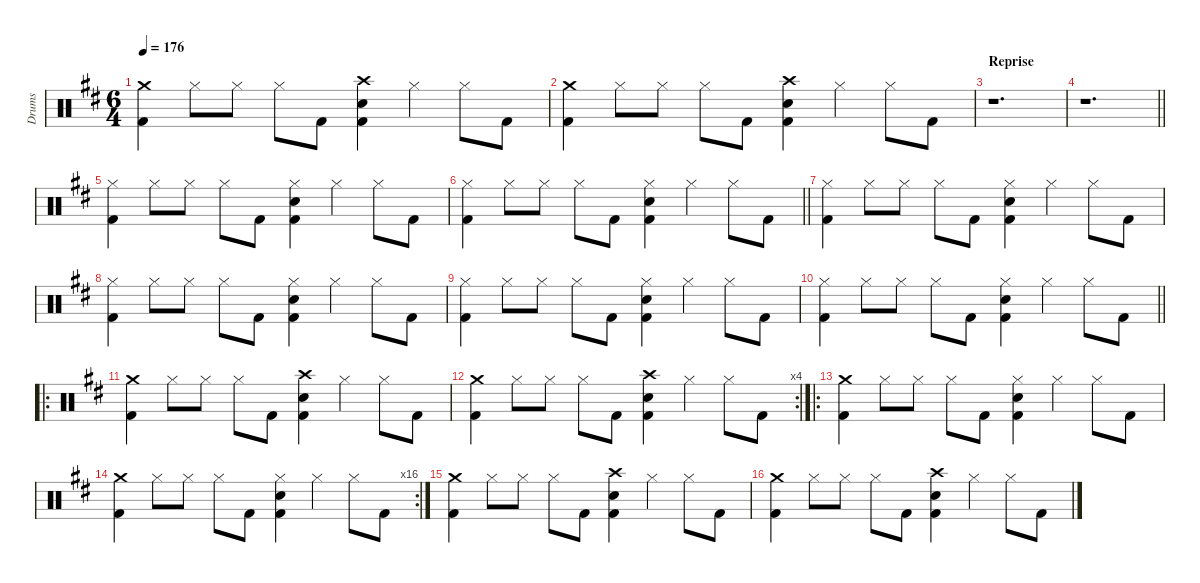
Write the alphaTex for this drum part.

\hideDynamics
\bracketExtendMode groupsimilarinstruments
\otherSystemsTrackNameOrientation horizontal
\track ("Drumkit" "Drums") {defaultSystemsLayout 4 instrument percussion}
\staff {score}
\articulation defaults
\ts (6 4)
\tempo 176
\clef neutral
\ks bminor
("Crash medium (hit)"{acc forcenatural} "Kick (hit) 2"{acc forcenatural}).4{dy ff beam Down} "Hi-Hat (closed)"{acc forcenatural}.8{dy f beam Down} "Hi-Hat (closed)"{acc forcenatural}.8{beam Down} "Hi-Hat (closed)"{acc forcenatural}.8{beam Down} "Kick (hit) 2"{acc forcenatural}.8{beam Down} ("Crash high (hit)"{acc forcenatural} "Snare (hit) 2"{acc forcenatural} "Kick (hit) 2"{acc forcenatural}).4{beam Down} "Hi-Hat (closed)"{acc forcenatural}.4{beam Down} "Hi-Hat (closed)"{acc forcenatural}.8{beam Down} "Kick (hit) 2"{acc forcenatural}.8{beam Down} |
("Crash medium (hit)"{acc forcenatural} "Kick (hit) 2"{acc forcenatural}).4{dy ff beam Down} "Hi-Hat (closed)"{acc forcenatural}.8{dy f beam Down} "Hi-Hat (closed)"{acc forcenatural}.8{beam Down} "Hi-Hat (closed)"{acc forcenatural}.8{beam Down} "Kick (hit) 2"{acc forcenatural}.8{beam Down} ("Crash high (hit)"{acc forcenatural} "Snare (hit) 2"{acc forcenatural} "Kick (hit) 2"{acc forcenatural}).4{beam Down} "Hi-Hat (closed)"{acc forcenatural}.4{beam Down} "Hi-Hat (closed)"{acc forcenatural}.8{beam Down} "Kick (hit) 2"{acc forcenatural}.8{beam Down} |
\section ("" "Reprise")
r.1{d beam Down} |
\barLineRight lightlight
r.1{d beam Down} |
("Hi-Hat (closed)"{acc forcenatural} "Kick (hit) 2"{acc forcenatural}).4{beam Down} "Hi-Hat (closed)"{acc forcenatural}.8{beam Down} "Hi-Hat (closed)"{acc forcenatural}.8{beam Down} "Hi-Hat (closed)"{acc forcenatural}.8{beam Down} "Kick (hit) 2"{acc forcenatural}.8{beam Down} ("Hi-Hat (closed)"{acc forcenatural} "Snare (hit) 2"{acc forcenatural} "Kick (hit) 2"{acc forcenatural}).4{beam Down} "Hi-Hat (closed)"{acc forcenatural}.4{beam Down} "Hi-Hat (closed)"{acc forcenatural}.8{beam Down} "Kick (hit) 2"{acc forcenatural}.8{beam Down} |
\barLineRight lightlight
("Hi-Hat (closed)"{acc forcenatural} "Kick (hit) 2"{acc forcenatural}).4{beam Down} "Hi-Hat (closed)"{acc forcenatural}.8{beam Down} "Hi-Hat (closed)"{acc forcenatural}.8{beam Down} "Hi-Hat (closed)"{acc forcenatural}.8{beam Down} "Kick (hit) 2"{acc forcenatural}.8{beam Down} ("Hi-Hat (closed)"{acc forcenatural} "Snare (hit) 2"{acc forcenatural} "Kick (hit) 2"{acc forcenatural}).4{beam Down} "Hi-Hat (closed)"{acc forcenatural}.4{beam Down} "Hi-Hat (closed)"{acc forcenatural}.8{beam Down} "Kick (hit) 2"{acc forcenatural}.8{beam Down} |
("Hi-Hat (closed)"{acc forcenatural} "Kick (hit) 2"{acc forcenatural}).4{beam Down} "Hi-Hat (closed)"{acc forcenatural}.8{beam Down} "Hi-Hat (closed)"{acc forcenatural}.8{beam Down} "Hi-Hat (closed)"{acc forcenatural}.8{beam Down} "Kick (hit) 2"{acc forcenatural}.8{beam Down} ("Hi-Hat (closed)"{acc forcenatural} "Snare (hit) 2"{acc forcenatural} "Kick (hit) 2"{acc forcenatural}).4{beam Down} "Hi-Hat (closed)"{acc forcenatural}.4{beam Down} "Hi-Hat (closed)"{acc forcenatural}.8{beam Down} "Kick (hit) 2"{acc forcenatural}.8{beam Down} |
("Hi-Hat (closed)"{acc forcenatural} "Kick (hit) 2"{acc forcenatural}).4{beam Down} "Hi-Hat (closed)"{acc forcenatural}.8{beam Down} "Hi-Hat (closed)"{acc forcenatural}.8{beam Down} "Hi-Hat (closed)"{acc forcenatural}.8{beam Down} "Kick (hit) 2"{acc forcenatural}.8{beam Down} ("Hi-Hat (closed)"{acc forcenatural} "Snare (hit) 2"{acc forcenatural} "Kick (hit) 2"{acc forcenatural}).4{beam Down} "Hi-Hat (closed)"{acc forcenatural}.4{beam Down} "Hi-Hat (closed)"{acc forcenatural}.8{beam Down} "Kick (hit) 2"{acc forcenatural}.8{beam Down} |
("Hi-Hat (closed)"{acc forcenatural} "Kick (hit) 2"{acc forcenatural}).4{beam Down} "Hi-Hat (closed)"{acc forcenatural}.8{beam Down} "Hi-Hat (closed)"{acc forcenatural}.8{beam Down} "Hi-Hat (closed)"{acc forcenatural}.8{beam Down} "Kick (hit) 2"{acc forcenatural}.8{beam Down} ("Hi-Hat (closed)"{acc forcenatural} "Snare (hit) 2"{acc forcenatural} "Kick (hit) 2"{acc forcenatural}).4{beam Down} "Hi-Hat (closed)"{acc forcenatural}.4{beam Down} "Hi-Hat (closed)"{acc forcenatural}.8{beam Down} "Kick (hit) 2"{acc forcenatural}.8{beam Down} |
\barLineRight lightlight
("Hi-Hat (closed)"{acc forcenatural} "Kick (hit) 2"{acc forcenatural}).4{beam Down} "Hi-Hat (closed)"{acc forcenatural}.8{beam Down} "Hi-Hat (closed)"{acc forcenatural}.8{beam Down} "Hi-Hat (closed)"{acc forcenatural}.8{beam Down} "Kick (hit) 2"{acc forcenatural}.8{beam Down} ("Hi-Hat (closed)"{acc forcenatural} "Snare (hit) 2"{acc forcenatural} "Kick (hit) 2"{acc forcenatural}).4{beam Down} "Hi-Hat (closed)"{acc forcenatural}.4{beam Down} "Hi-Hat (closed)"{acc forcenatural}.8{beam Down} "Kick (hit) 2"{acc forcenatural}.8{beam Down} |
\ro
("Crash medium (hit)"{acc forcenatural} "Kick (hit) 2"{acc forcenatural}).4{dy ff beam Down} "Hi-Hat (closed)"{acc forcenatural}.8{dy f beam Down} "Hi-Hat (closed)"{acc forcenatural}.8{beam Down} "Hi-Hat (closed)"{acc forcenatural}.8{beam Down} "Kick (hit) 2"{acc forcenatural}.8{beam Down} ("Crash high (hit)"{acc forcenatural} "Snare (hit) 2"{acc forcenatural} "Kick (hit) 2"{acc forcenatural}).4{beam Down} "Hi-Hat (closed)"{acc forcenatural}.4{beam Down} "Hi-Hat (closed)"{acc forcenatural}.8{beam Down} "Kick (hit) 2"{acc forcenatural}.8{beam Down} |
\rc 4
("Crash medium (hit)"{acc forcenatural} "Kick (hit) 2"{acc forcenatural}).4{dy ff beam Down} "Hi-Hat (closed)"{acc forcenatural}.8{dy f beam Down} "Hi-Hat (closed)"{acc forcenatural}.8{beam Down} "Hi-Hat (closed)"{acc forcenatural}.8{beam Down} "Kick (hit) 2"{acc forcenatural}.8{beam Down} ("Crash high (hit)"{acc forcenatural} "Snare (hit) 2"{acc forcenatural} "Kick (hit) 2"{acc forcenatural}).4{beam Down} "Hi-Hat (closed)"{acc forcenatural}.4{beam Down} "Hi-Hat (closed)"{acc forcenatural}.8{beam Down} "Kick (hit) 2"{acc forcenatural}.8{beam Down} |
\ro
("Crash medium (hit)"{acc forcenatural} "Kick (hit) 2"{acc forcenatural}).4{dy ff beam Down} "Hi-Hat (closed)"{acc forcenatural}.8{dy f beam Down} "Hi-Hat (closed)"{acc forcenatural}.8{beam Down} "Hi-Hat (closed)"{acc forcenatural}.8{beam Down} "Kick (hit) 2"{acc forcenatural}.8{beam Down} ("Hi-Hat (closed)"{acc forcenatural} "Snare (hit) 2"{acc forcenatural} "Kick (hit) 2"{acc forcenatural}).4{beam Down} "Hi-Hat (closed)"{acc forcenatural}.4{beam Down} "Hi-Hat (closed)"{acc forcenatural}.8{beam Down} "Kick (hit) 2"{acc forcenatural}.8{beam Down} |
\rc 16
("Crash medium (hit)"{acc forcenatural} "Kick (hit) 2"{acc forcenatural}).4{dy ff beam Down} "Hi-Hat (closed)"{acc forcenatural}.8{dy f beam Down} "Hi-Hat (closed)"{acc forcenatural}.8{beam Down} "Hi-Hat (closed)"{acc forcenatural}.8{beam Down} "Kick (hit) 2"{acc forcenatural}.8{beam Down} ("Hi-Hat (closed)"{acc forcenatural} "Snare (hit) 2"{acc forcenatural} "Kick (hit) 2"{acc forcenatural}).4{beam Down} "Hi-Hat (closed)"{acc forcenatural}.4{beam Down} "Hi-Hat (closed)"{acc forcenatural}.8{beam Down} "Kick (hit) 2"{acc forcenatural}.8{beam Down} |
("Crash medium (hit)"{acc forcenatural} "Kick (hit) 2"{acc forcenatural}).4{dy ff beam Down} "Hi-Hat (closed)"{acc forcenatural}.8{dy f beam Down} "Hi-Hat (closed)"{acc forcenatural}.8{beam Down} "Hi-Hat (closed)"{acc forcenatural}.8{beam Down} "Kick (hit) 2"{acc forcenatural}.8{beam Down} ("Crash high (hit)"{acc forcenatural} "Snare (hit) 2"{acc forcenatural} "Kick (hit) 2"{acc forcenatural}).4{beam Down} "Hi-Hat (closed)"{acc forcenatural}.4{beam Down} "Hi-Hat (closed)"{acc forcenatural}.8{beam Down} "Kick (hit) 2"{acc forcenatural}.8{beam Down} |
("Crash medium (hit)"{acc forcenatural} "Kick (hit) 2"{acc forcenatural}).4{dy ff beam Down} "Hi-Hat (closed)"{acc forcenatural}.8{dy f beam Down} "Hi-Hat (closed)"{acc forcenatural}.8{beam Down} "Hi-Hat (closed)"{acc forcenatural}.8{beam Down} "Kick (hit) 2"{acc forcenatural}.8{beam Down} ("Crash high (hit)"{acc forcenatural} "Snare (hit) 2"{acc forcenatural} "Kick (hit) 2"{acc forcenatural}).4{beam Down} "Hi-Hat (closed)"{acc forcenatural}.4{beam Down} "Hi-Hat (closed)"{acc forcenatural}.8{beam Down} "Kick (hit) 2"{acc forcenatural}.8{beam Down}
